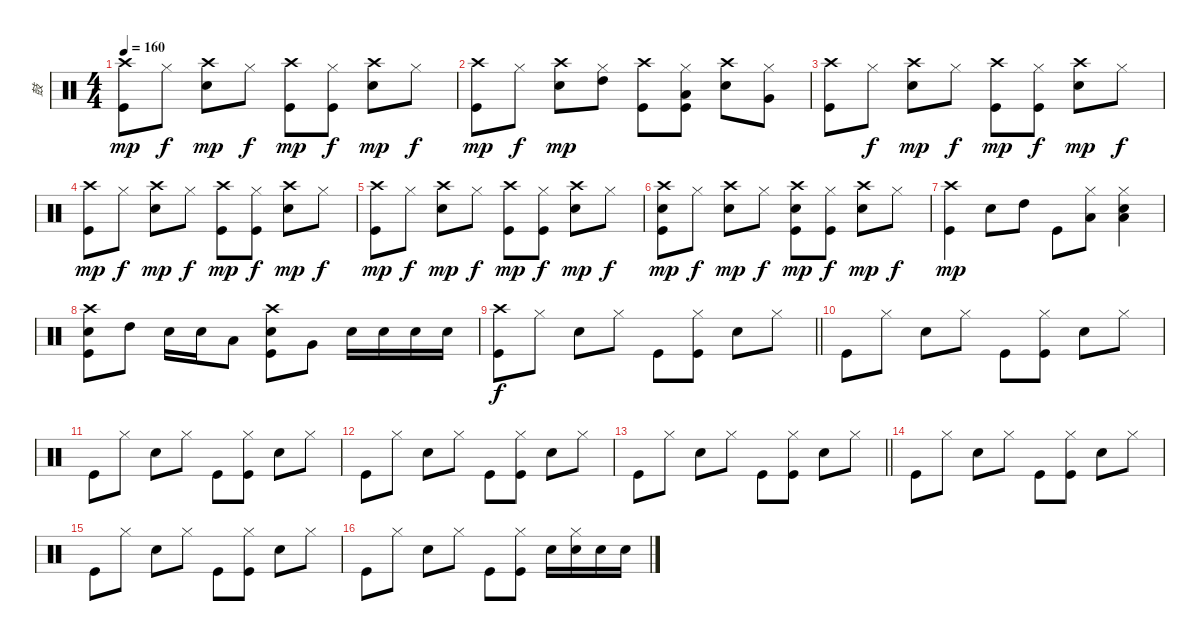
\track ("鼓" "鼓") {instrument percussion}
\staff {score}
\articulation defaults
\ts (4 4)
\tempo 160
\clef neutral
\ks c
("Crash high (hit)" "Kick (hit)").8{dy mp} "Hi-Hat (closed)".8{dy f} ("Crash high (hit)" "Electric Snare (hit)").8{dy mp} "Hi-Hat (closed)".8{dy f} ("Crash high (hit)" "Kick (hit)").8{dy mp} ("Hi-Hat (closed)" "Kick (hit)").8{dy f} ("Crash high (hit)" "Electric Snare (hit)").8{dy mp} "Hi-Hat (closed)".8{dy f} |
("Crash high (hit)" "Kick (hit)").8{dy mp} "Hi-Hat (closed)".8{dy f} ("Electric Snare (hit)" "Crash high (hit)").8{dy mp} ("High Tom (hit)" "Hi-Hat (closed)").8 ("Kick (hit)" "Crash high (hit)").8 ("Low Tom (hit)" "Hi-Hat (closed)" "Kick (hit)").8 ("Electric Snare (hit)" "Crash high (hit)").8 ("Very Low Tom (hit)" "Hi-Hat (closed)").8 |
("Crash high (hit)" "Kick (hit)").8 "Hi-Hat (closed)".8{dy f} ("Crash high (hit)" "Electric Snare (hit)").8{dy mp} "Hi-Hat (closed)".8{dy f} ("Crash high (hit)" "Kick (hit)").8{dy mp} ("Hi-Hat (closed)" "Kick (hit)").8{dy f} ("Crash high (hit)" "Electric Snare (hit)").8{dy mp} "Hi-Hat (closed)".8{dy f} |
("Crash high (hit)" "Kick (hit)").8{dy mp} "Hi-Hat (closed)".8{dy f} ("Crash high (hit)" "Electric Snare (hit)").8{dy mp} "Hi-Hat (closed)".8{dy f} ("Crash high (hit)" "Kick (hit)").8{dy mp} ("Hi-Hat (closed)" "Kick (hit)").8{dy f} ("Crash high (hit)" "Electric Snare (hit)").8{dy mp} "Hi-Hat (closed)".8{dy f} |
("Crash high (hit)" "Kick (hit)").8{dy mp} "Hi-Hat (closed)".8{dy f} ("Crash high (hit)" "Electric Snare (hit)").8{dy mp} "Hi-Hat (closed)".8{dy f} ("Crash high (hit)" "Kick (hit)").8{dy mp} ("Hi-Hat (closed)" "Kick (hit)").8{dy f} ("Crash high (hit)" "Electric Snare (hit)").8{dy mp} "Hi-Hat (closed)".8{dy f} |
("Crash high (hit)" "Electric Snare (hit)" "Kick (hit)").8{dy mp} "Hi-Hat (closed)".8{dy f} ("Crash high (hit)" "Electric Snare (hit)").8{dy mp} "Hi-Hat (closed)".8{dy f} ("Crash high (hit)" "Electric Snare (hit)" "Kick (hit)").8{dy mp} ("Hi-Hat (closed)" "Kick (hit)").8{dy f} ("Crash high (hit)" "Electric Snare (hit)").8{dy mp} "Hi-Hat (closed)".8{dy f} |
("Crash high (hit)" "Kick (hit)").4{dy mp} "Electric Snare (hit)".8 "High Tom (hit)".8{volume 16} "Kick (hit)".8 ("Low Tom (hit)" "Hi-Hat (closed)").8{volume 16} ("Low Tom (hit)" "Hi-Hat (closed)" "Electric Snare (hit)").4{volume 16} |
("Crash high (hit)" "Electric Snare (hit)" "Kick (hit)").8 "High Tom (hit)".8{volume 16} "Electric Snare (hit)".16 "Electric Snare (hit)".16 "Low Tom (hit)".8{volume 16} ("Crash high (hit)" "Electric Snare (hit)" "Kick (hit)").8 "Very Low Tom (hit)".8{volume 16} "Electric Snare (hit)".16 "Electric Snare (hit)".16 "Electric Snare (hit)".16 "Electric Snare (hit)".16 |
\barLineRight lightlight
("Crash high (hit)" "Kick (hit)").8{dy f} "Hi-Hat (closed)".8 "Electric Snare (hit)".8 "Hi-Hat (closed)".8 "Kick (hit)".8 ("Hi-Hat (closed)" "Kick (hit)").8 "Electric Snare (hit)".8 "Hi-Hat (closed)".8 |
"Kick (hit)".8 "Hi-Hat (closed)".8 "Electric Snare (hit)".8 "Hi-Hat (closed)".8 "Kick (hit)".8 ("Hi-Hat (closed)" "Kick (hit)").8 "Electric Snare (hit)".8 "Hi-Hat (closed)".8 |
"Kick (hit)".8 "Hi-Hat (closed)".8 "Electric Snare (hit)".8 "Hi-Hat (closed)".8 "Kick (hit)".8 ("Hi-Hat (closed)" "Kick (hit)").8 "Electric Snare (hit)".8 "Hi-Hat (closed)".8 |
"Kick (hit)".8 "Hi-Hat (closed)".8 "Electric Snare (hit)".8 "Hi-Hat (closed)".8 "Kick (hit)".8 ("Hi-Hat (closed)" "Kick (hit)").8 "Electric Snare (hit)".8 "Hi-Hat (closed)".8 |
\barLineRight lightlight "Kick (hit)".8 "Hi-Hat (closed)".8 "Electric Snare (hit)".8 "Hi-Hat (closed)".8 "Kick (hit)".8
("Hi-Hat (closed)" "Kick (hit)").8 "Electric Snare (hit)".8 "Hi-Hat (closed)".8 |
"Kick (hit)".8 "Hi-Hat (closed)".8 "Electric Snare (hit)".8 "Hi-Hat (closed)".8 "Kick (hit)".8 ("Hi-Hat (closed)" "Kick (hit)").8 "Electric Snare (hit)".8 "Hi-Hat (closed)".8 |
"Kick (hit)".8 "Hi-Hat (closed)".8 "Electric Snare (hit)".8 "Hi-Hat (closed)".8 "Kick (hit)".8 ("Hi-Hat (closed)" "Kick (hit)").8 "Electric Snare (hit)".8 "Hi-Hat (closed)".8 |
"Kick (hit)".8 "Hi-Hat (closed)".8 "Electric Snare (hit)".8 "Hi-Hat (closed)".8 "Kick (hit)".8 ("Hi-Hat (closed)" "Kick (hit)").8 "Electric Snare (hit)".16 ("Hi-Hat (closed)" "Electric Snare (hit)").16 "Electric Snare (hit)".16 "Electric Snare (hit)".16
